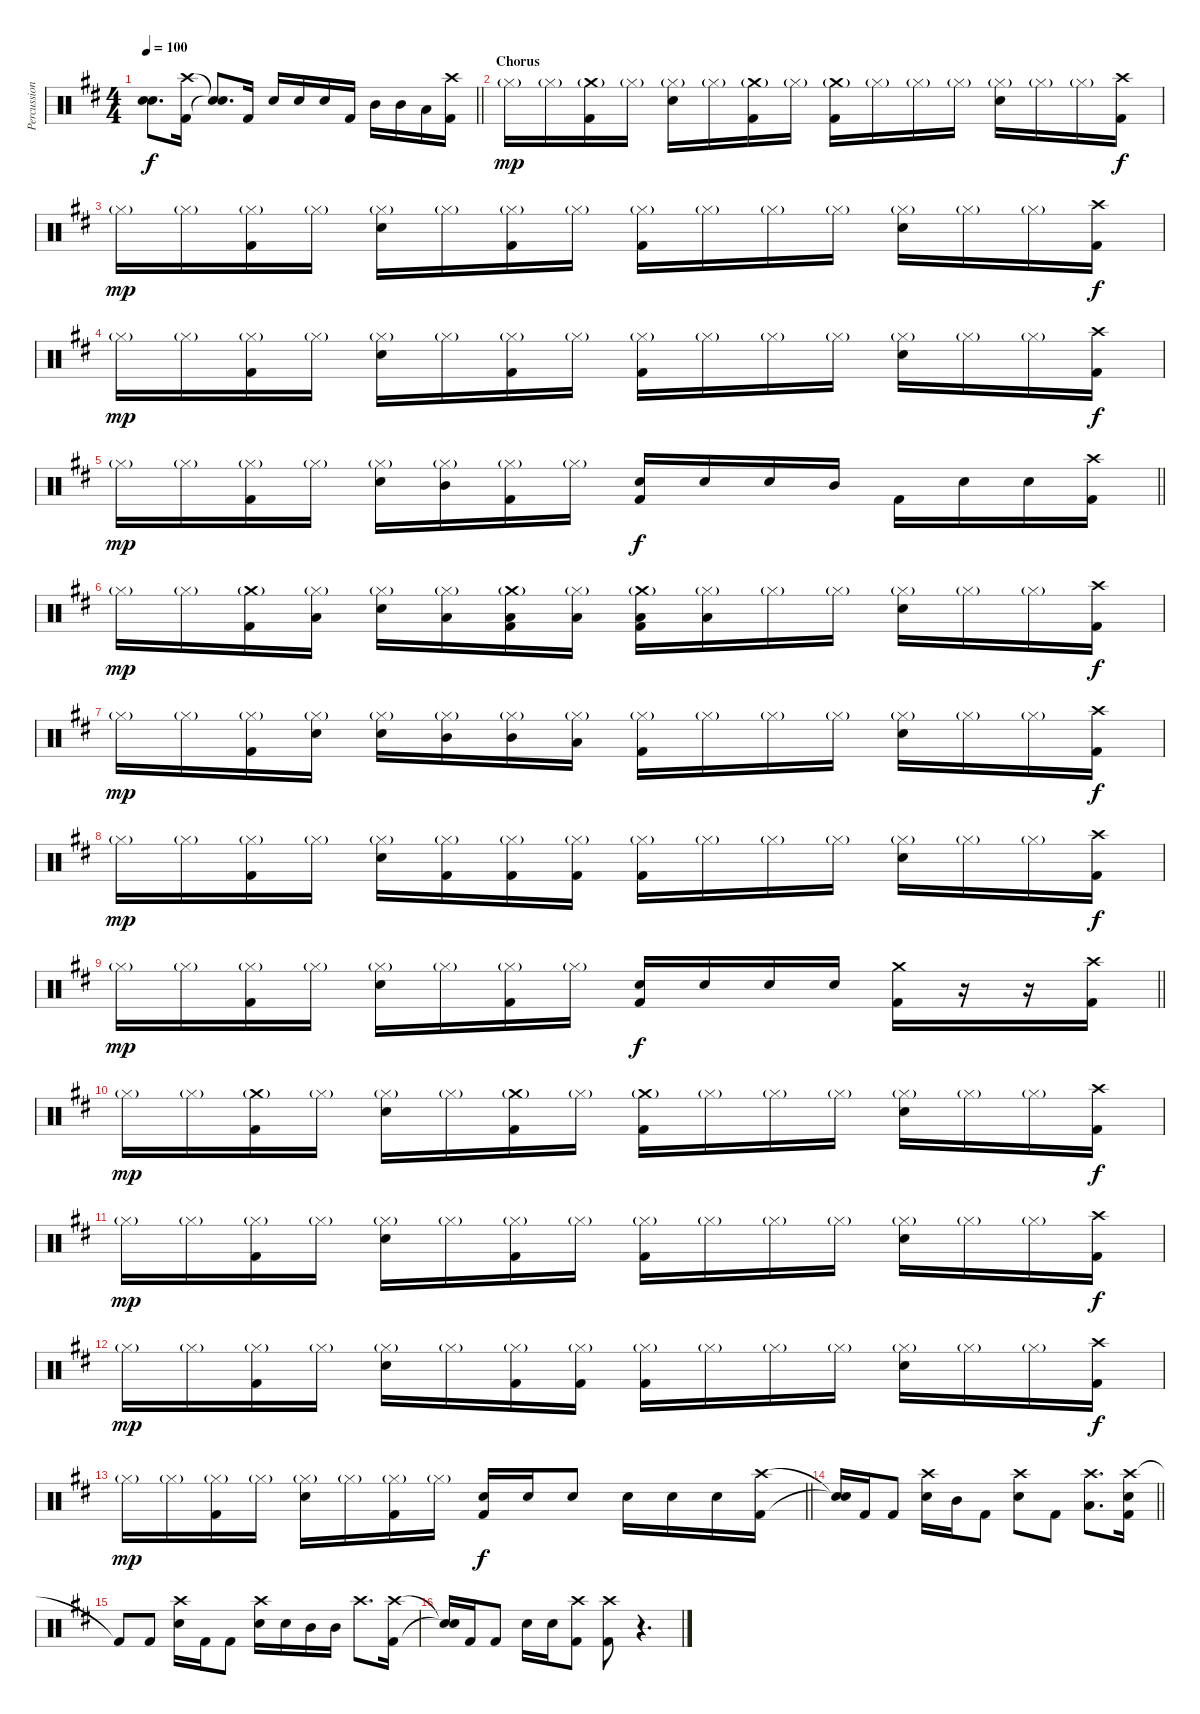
\track ("Percussion" "Percussion") {instrument percussion}
\staff {score}
\articulation defaults
\ts (4 4)
\tempo 100
\clef neutral
\barLineRight lightlight
\ks bminor
("Snare (hit)"{t} "Snare (hit)"{t}).8{d dy f} ("Crash high (hit)" "Kick (hit) 2").16 ("Snare (hit)"{t} "Snare (hit)"{t}).8{d} "Kick (hit) 2".16 "Snare (hit) 2".16 "Snare (hit) 2".16 "Snare (hit) 2".16 "Kick (hit) 2".16 "Mid Tom (hit)".16 "Mid Tom (hit)".16 "Low Floor Tom (hit)".16 ("Crash high (hit)" "Kick (hit) 2").16 |
\section ("" "Chorus")
"Hi-Hat (closed)"{g}.16{dy mp} "Hi-Hat (closed)"{g}.16 ("Crash medium (hit)"{g} "Kick (hit) 2").16 "Hi-Hat (closed)"{g}.16 ("Hi-Hat (closed)"{g} "Snare (hit) 2").16 "Hi-Hat (closed)"{g}.16 ("Crash medium (hit)"{g} "Kick (hit) 2").16 "Hi-Hat (closed)"{g}.16 ("Crash medium (hit)"{g} "Kick (hit) 2").16 "Hi-Hat (closed)"{g}.16 "Hi-Hat (closed)"{g}.16 "Hi-Hat (closed)"{g}.16 ("Hi-Hat (closed)"{g} "Snare (hit) 2").16 "Hi-Hat (closed)"{g}.16 "Hi-Hat (closed)"{g}.16 ("Crash high (hit)" "Kick (hit) 2").16{dy f} |
"Hi-Hat (closed)"{g}.16{dy mp} "Hi-Hat (closed)"{g}.16 ("Hi-Hat (closed)"{g} "Kick (hit) 2").16 "Hi-Hat (closed)"{g}.16 ("Hi-Hat (closed)"{g} "Snare (hit) 2").16 "Hi-Hat (closed)"{g}.16 ("Hi-Hat (closed)"{g} "Kick (hit) 2").16 "Hi-Hat (closed)"{g}.16 ("Hi-Hat (closed)"{g} "Kick (hit) 2").16 "Hi-Hat (closed)"{g}.16 "Hi-Hat (closed)"{g}.16 "Hi-Hat (closed)"{g}.16 ("Hi-Hat (closed)"{g} "Snare (hit) 2").16 "Hi-Hat (closed)"{g}.16 "Hi-Hat (closed)"{g}.16 ("Crash high (hit)" "Kick (hit) 2").16{dy f} |
"Hi-Hat (closed)"{g}.16{dy mp} "Hi-Hat (closed)"{g}.16 ("Hi-Hat (closed)"{g} "Kick (hit) 2").16 "Hi-Hat (closed)"{g}.16 ("Hi-Hat (closed)"{g} "Snare (hit) 2").16 "Hi-Hat (closed)"{g}.16 ("Hi-Hat (closed)"{g} "Kick (hit) 2").16 "Hi-Hat (closed)"{g}.16 ("Hi-Hat (closed)"{g} "Kick (hit) 2").16 "Hi-Hat (closed)"{g}.16 "Hi-Hat (closed)"{g}.16 "Hi-Hat (closed)"{g}.16 ("Hi-Hat (closed)"{g} "Snare (hit) 2").16 "Hi-Hat (closed)"{g}.16 "Hi-Hat (closed)"{g}.16 ("Crash high (hit)" "Kick (hit) 2").16{dy f} |
\barLineRight lightlight "Hi-Hat (closed)"{g}.16{dy mp} "Hi-Hat (closed)"{g}.16
("Hi-Hat (closed)"{g} "Kick (hit) 2").16 "Hi-Hat (closed)"{g}.16 ("Hi-Hat (closed)"{g} "Snare (hit) 2").16 ("Hi-Hat (closed)"{g} "Mid Tom (hit)").16 ("Hi-Hat (closed)"{g} "Kick (hit) 2").16 "Hi-Hat (closed)"{g}.16 ("Snare (hit) 2" "Kick (hit) 2").16{dy f} "Snare (hit) 2".16 "Snare (hit) 2".16 "Mid Tom (hit)".16 "Kick (hit) 2".16 "Snare (hit) 2".16 "Snare (hit) 2".16 ("Crash high (hit)" "Kick (hit) 2").16 |
"Hi-Hat (closed)"{g}.16{dy mp} "Hi-Hat (closed)"{g}.16 ("Crash medium (hit)"{g} "Kick (hit) 2").16 ("Hi-Hat (closed)"{g} "Low Floor Tom (hit)").16 ("Hi-Hat (closed)"{g} "Snare (hit) 2").16 ("Hi-Hat (closed)"{g} "Low Floor Tom (hit)").16 ("Crash medium (hit)"{g} "Low Floor Tom (hit)" "Kick (hit) 2").16 ("Hi-Hat (closed)"{g} "Low Floor Tom (hit)").16 ("Crash medium (hit)"{g} "Low Floor Tom (hit)" "Kick (hit) 2").16 ("Hi-Hat (closed)"{g} "Low Floor Tom (hit)").16 "Hi-Hat (closed)"{g}.16 "Hi-Hat (closed)"{g}.16 ("Hi-Hat (closed)"{g} "Snare (hit) 2").16 "Hi-Hat (closed)"{g}.16 "Hi-Hat (closed)"{g}.16 ("Crash high (hit)" "Kick (hit) 2").16{dy f} |
"Hi-Hat (closed)"{g}.16{dy mp} "Hi-Hat (closed)"{g}.16 ("Hi-Hat (closed)"{g} "Kick (hit) 2").16 ("Hi-Hat (closed)"{g} "Snare (hit) 2").16 ("Hi-Hat (closed)"{g} "Snare (hit) 2").16 ("Hi-Hat (closed)"{g} "Mid Tom (hit)").16 ("Hi-Hat (closed)"{g} "Mid Tom (hit)").16 ("Hi-Hat (closed)"{g} "Low Floor Tom (hit)").16 ("Hi-Hat (closed)"{g} "Kick (hit) 2").16 "Hi-Hat (closed)"{g}.16 "Hi-Hat (closed)"{g}.16 "Hi-Hat (closed)"{g}.16 ("Hi-Hat (closed)"{g} "Snare (hit) 2").16 "Hi-Hat (closed)"{g}.16 "Hi-Hat (closed)"{g}.16 ("Crash high (hit)" "Kick (hit) 2").16{dy f} |
"Hi-Hat (closed)"{g}.16{dy mp} "Hi-Hat (closed)"{g}.16 ("Hi-Hat (closed)"{g} "Kick (hit) 2").16 "Hi-Hat (closed)"{g}.16 ("Hi-Hat (closed)"{g} "Snare (hit) 2").16 ("Hi-Hat (closed)"{g} "Kick (hit) 2").16 ("Hi-Hat (closed)"{g} "Kick (hit) 2").16 ("Hi-Hat (closed)"{g} "Kick (hit) 2").16 ("Hi-Hat (closed)"{g} "Kick (hit) 2").16 "Hi-Hat (closed)"{g}.16 "Hi-Hat (closed)"{g}.16 "Hi-Hat (closed)"{g}.16 ("Hi-Hat (closed)"{g} "Snare (hit) 2").16 "Hi-Hat (closed)"{g}.16 "Hi-Hat (closed)"{g}.16 ("Crash high (hit)" "Kick (hit) 2").16{dy f} |
\barLineRight lightlight "Hi-Hat (closed)"{g}.16{dy mp} "Hi-Hat (closed)"{g}.16
("Hi-Hat (closed)"{g} "Kick (hit) 2").16 "Hi-Hat (closed)"{g}.16 ("Hi-Hat (closed)"{g} "Snare (hit) 2").16 "Hi-Hat (closed)"{g}.16 ("Hi-Hat (closed)"{g} "Kick (hit) 2").16 "Hi-Hat (closed)"{g}.16 ("Snare (hit) 2" "Kick (hit) 2").16{dy f} "Snare (hit) 2".16 "Snare (hit) 2".16 "Snare (hit) 2".16 ("Crash medium (hit)" "Kick (hit) 2").16 r.16 r.16 ("Crash high (hit)" "Kick (hit) 2").16 |
"Hi-Hat (closed)"{g}.16{dy mp} "Hi-Hat (closed)"{g}.16 ("Crash medium (hit)"{g} "Kick (hit) 2").16 "Hi-Hat (closed)"{g}.16 ("Hi-Hat (closed)"{g} "Snare (hit) 2").16 "Hi-Hat (closed)"{g}.16 ("Crash medium (hit)"{g} "Kick (hit) 2").16 "Hi-Hat (closed)"{g}.16 ("Crash medium (hit)"{g} "Kick (hit) 2").16 "Hi-Hat (closed)"{g}.16 "Hi-Hat (closed)"{g}.16 "Hi-Hat (closed)"{g}.16 ("Hi-Hat (closed)"{g} "Snare (hit) 2").16 "Hi-Hat (closed)"{g}.16 "Hi-Hat (closed)"{g}.16 ("Crash high (hit)" "Kick (hit) 2").16{dy f} |
"Hi-Hat (closed)"{g}.16{dy mp} "Hi-Hat (closed)"{g}.16 ("Hi-Hat (closed)"{g} "Kick (hit) 2").16 "Hi-Hat (closed)"{g}.16 ("Hi-Hat (closed)"{g} "Snare (hit) 2").16 "Hi-Hat (closed)"{g}.16 ("Hi-Hat (closed)"{g} "Kick (hit) 2").16 "Hi-Hat (closed)"{g}.16 ("Hi-Hat (closed)"{g} "Kick (hit) 2").16 "Hi-Hat (closed)"{g}.16 "Hi-Hat (closed)"{g}.16 "Hi-Hat (closed)"{g}.16 ("Hi-Hat (closed)"{g} "Snare (hit) 2").16 "Hi-Hat (closed)"{g}.16 "Hi-Hat (closed)"{g}.16 ("Crash high (hit)" "Kick (hit) 2").16{dy f} |
"Hi-Hat (closed)"{g}.16{dy mp} "Hi-Hat (closed)"{g}.16 ("Hi-Hat (closed)"{g} "Kick (hit) 2").16 "Hi-Hat (closed)"{g}.16 ("Hi-Hat (closed)"{g} "Snare (hit) 2").16 "Hi-Hat (closed)"{g}.16 ("Hi-Hat (closed)"{g} "Kick (hit) 2").16 ("Hi-Hat (closed)"{g} "Kick (hit) 2").16 ("Hi-Hat (closed)"{g} "Kick (hit) 2").16 "Hi-Hat (closed)"{g}.16 "Hi-Hat (closed)"{g}.16 "Hi-Hat (closed)"{g}.16 ("Hi-Hat (closed)"{g} "Snare (hit) 2").16 "Hi-Hat (closed)"{g}.16 "Hi-Hat (closed)"{g}.16 ("Crash high (hit)" "Kick (hit) 2").16{dy f} |
\barLineRight lightlight "Hi-Hat (closed)"{g}.16{dy mp} "Hi-Hat (closed)"{g}.16
("Hi-Hat (closed)"{g} "Kick (hit) 2").16 "Hi-Hat (closed)"{g}.16 ("Hi-Hat (closed)"{g} "Snare (hit) 2").16 "Hi-Hat (closed)"{g}.16 ("Hi-Hat (closed)"{g} "Kick (hit) 2").16 "Hi-Hat (closed)"{g}.16 ("Snare (hit) 2" "Kick (hit) 2").16{dy f} "Snare (hit) 2".16 "Snare (hit) 2".8 "Snare (hit) 2".16 "Snare (hit) 2".16 "Snare (hit) 2".16 ("Crash high (hit)" "Kick (hit) 2").16 |
\barLineRight lightlight
("Snare (hit)"{t} "Snare (hit)"{t}).16 "Kick (hit) 2".16 "Kick (hit) 2".8 ("Crash high (hit)" "Snare (hit) 2").16 "Mid Tom (hit)".16 "Kick (hit) 2".8 ("Crash high (hit)" "Snare (hit) 2").8 "Kick (hit) 2".8 ("Crash high (hit)" "Low Floor Tom (hit)").8{d} ("Crash high (hit)" "Snare (hit) 2" "Kick (hit) 2").16 |
"Kick (hit) 2"{t}.8 "Kick (hit) 2".8 ("Crash high (hit)" "Snare (hit) 2").16 "Kick (hit) 2".16 "Kick (hit) 2".8 ("Crash high (hit)" "Snare (hit) 2").16 "Snare (hit) 2".16 "Mid Tom (hit)".16 "Mid Tom (hit)".16 "Crash high (hit)".8{d} ("Crash high (hit)" "Kick (hit) 2").16 |
("Snare (hit)"{t} "Snare (hit)"{t}).16 "Kick (hit) 2".16 "Kick (hit) 2".8 "Snare (hit) 2".16 "Snare (hit) 2".16 ("Crash high (hit)" "Kick (hit) 2").8 ("Crash high (hit)" "Kick (hit) 2").8 r.4{d}
